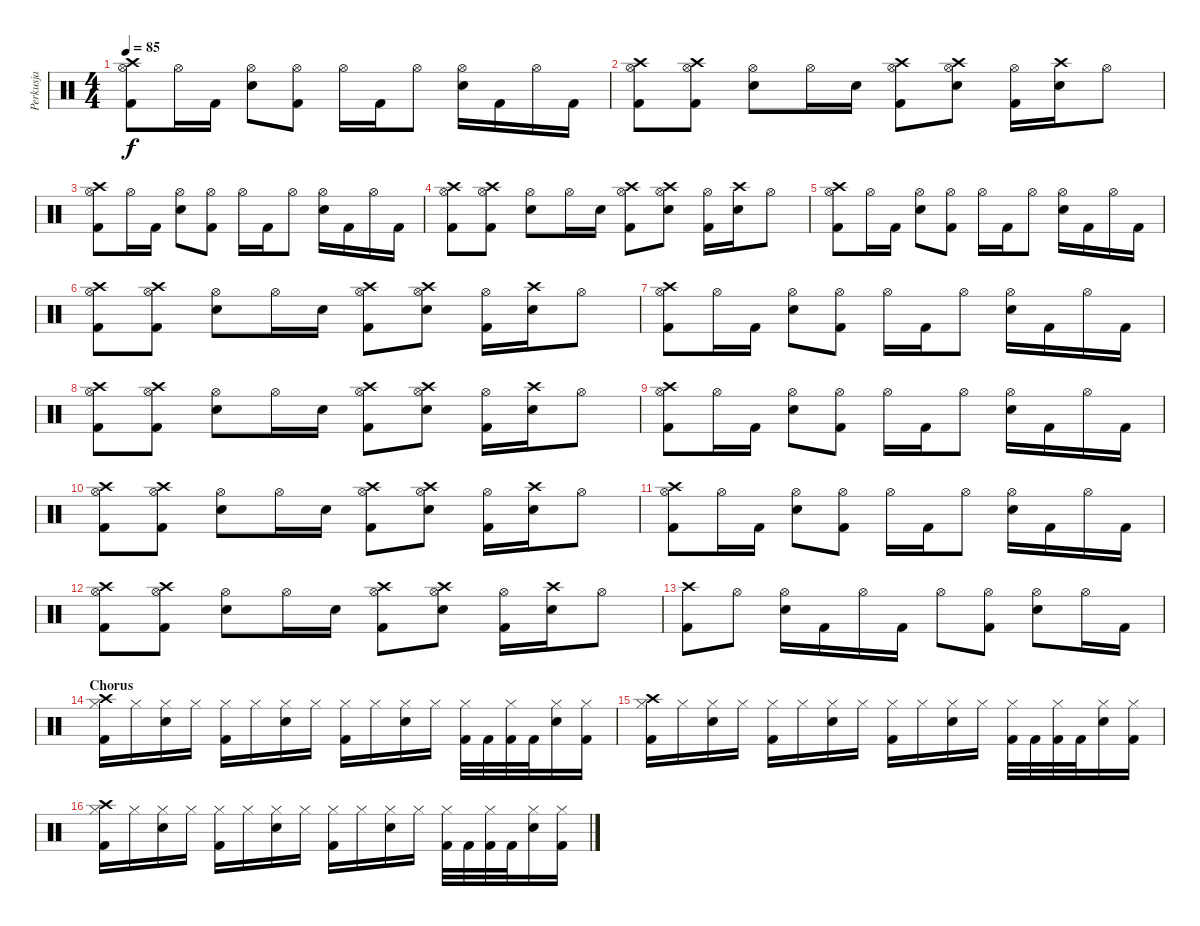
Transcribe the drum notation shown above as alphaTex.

\track ("Perkusja" "Perkusja") {instrument percussion}
\staff {score}
\articulation defaults
\ts (4 4)
\tempo 85
\clef neutral
\ks c
("Hi-Hat (open)" "Kick (hit) 2" "Crash high (hit)").8{dy f} "Hi-Hat (open)".16 "Kick (hit) 2".16 ("Hi-Hat (open)" "Snare (hit) 2").8 ("Hi-Hat (open)" "Kick (hit) 2").8 "Hi-Hat (open)".16 "Kick (hit) 2".16 "Hi-Hat (open)".8 ("Hi-Hat (open)" "Snare (hit) 2").16 "Kick (hit) 2".16 "Hi-Hat (open)".16 "Kick (hit) 2".16 |
("Hi-Hat (open)" "Kick (hit) 2" "Crash high (hit)").8 ("Hi-Hat (open)" "Kick (hit) 2" "Crash high (hit)").8 ("Hi-Hat (open)" "Snare (hit) 2").8 "Hi-Hat (open)".16 "Snare (hit) 2".16 ("Hi-Hat (open)" "Kick (hit) 2" "Crash high (hit)").8 ("Hi-Hat (open)" "Snare (hit) 2" "Crash high (hit)").8 ("Hi-Hat (open)" "Kick (hit) 2").16 ("Snare (hit) 2" "Crash high (hit)").16 "Hi-Hat (open)".8 |
("Hi-Hat (open)" "Kick (hit) 2" "Crash high (hit)").8 "Hi-Hat (open)".16 "Kick (hit) 2".16 ("Hi-Hat (open)" "Snare (hit) 2").8 ("Hi-Hat (open)" "Kick (hit) 2").8 "Hi-Hat (open)".16 "Kick (hit) 2".16 "Hi-Hat (open)".8 ("Hi-Hat (open)" "Snare (hit) 2").16 "Kick (hit) 2".16 "Hi-Hat (open)".16 "Kick (hit) 2".16 |
("Hi-Hat (open)" "Kick (hit) 2" "Crash high (hit)").8 ("Hi-Hat (open)" "Kick (hit) 2" "Crash high (hit)").8 ("Hi-Hat (open)" "Snare (hit) 2").8 "Hi-Hat (open)".16 "Snare (hit) 2".16 ("Hi-Hat (open)" "Kick (hit) 2" "Crash high (hit)").8 ("Hi-Hat (open)" "Snare (hit) 2" "Crash high (hit)").8 ("Hi-Hat (open)" "Kick (hit) 2").16 ("Snare (hit) 2" "Crash high (hit)").16 "Hi-Hat (open)".8 |
("Hi-Hat (open)" "Kick (hit) 2" "Crash high (hit)").8 "Hi-Hat (open)".16 "Kick (hit) 2".16 ("Hi-Hat (open)" "Snare (hit) 2").8 ("Hi-Hat (open)" "Kick (hit) 2").8 "Hi-Hat (open)".16 "Kick (hit) 2".16 "Hi-Hat (open)".8 ("Hi-Hat (open)" "Snare (hit) 2").16 "Kick (hit) 2".16 "Hi-Hat (open)".16 "Kick (hit) 2".16 |
("Hi-Hat (open)" "Kick (hit) 2" "Crash high (hit)").8 ("Hi-Hat (open)" "Kick (hit) 2" "Crash high (hit)").8 ("Hi-Hat (open)" "Snare (hit) 2").8 "Hi-Hat (open)".16 "Snare (hit) 2".16 ("Hi-Hat (open)" "Kick (hit) 2" "Crash high (hit)").8 ("Hi-Hat (open)" "Snare (hit) 2" "Crash high (hit)").8 ("Hi-Hat (open)" "Kick (hit) 2").16 ("Snare (hit) 2" "Crash high (hit)").16 "Hi-Hat (open)".8 |
("Hi-Hat (open)" "Kick (hit) 2" "Crash high (hit)").8 "Hi-Hat (open)".16 "Kick (hit) 2".16 ("Hi-Hat (open)" "Snare (hit) 2").8 ("Hi-Hat (open)" "Kick (hit) 2").8 "Hi-Hat (open)".16 "Kick (hit) 2".16 "Hi-Hat (open)".8 ("Hi-Hat (open)" "Snare (hit) 2").16 "Kick (hit) 2".16 "Hi-Hat (open)".16 "Kick (hit) 2".16 |
("Hi-Hat (open)" "Kick (hit) 2" "Crash high (hit)").8 ("Hi-Hat (open)" "Kick (hit) 2" "Crash high (hit)").8 ("Hi-Hat (open)" "Snare (hit) 2").8 "Hi-Hat (open)".16 "Snare (hit) 2".16 ("Hi-Hat (open)" "Kick (hit) 2" "Crash high (hit)").8 ("Hi-Hat (open)" "Snare (hit) 2" "Crash high (hit)").8 ("Hi-Hat (open)" "Kick (hit) 2").16 ("Snare (hit) 2" "Crash high (hit)").16 "Hi-Hat (open)".8 |
("Hi-Hat (open)" "Kick (hit) 2" "Crash high (hit)").8 "Hi-Hat (open)".16 "Kick (hit) 2".16 ("Hi-Hat (open)" "Snare (hit) 2").8 ("Hi-Hat (open)" "Kick (hit) 2").8 "Hi-Hat (open)".16 "Kick (hit) 2".16 "Hi-Hat (open)".8 ("Hi-Hat (open)" "Snare (hit) 2").16 "Kick (hit) 2".16 "Hi-Hat (open)".16 "Kick (hit) 2".16 |
("Hi-Hat (open)" "Kick (hit) 2" "Crash high (hit)").8 ("Hi-Hat (open)" "Kick (hit) 2" "Crash high (hit)").8 ("Hi-Hat (open)" "Snare (hit) 2").8 "Hi-Hat (open)".16 "Snare (hit) 2".16 ("Hi-Hat (open)" "Kick (hit) 2" "Crash high (hit)").8 ("Hi-Hat (open)" "Snare (hit) 2" "Crash high (hit)").8 ("Hi-Hat (open)" "Kick (hit) 2").16 ("Snare (hit) 2" "Crash high (hit)").16 "Hi-Hat (open)".8 |
("Hi-Hat (open)" "Kick (hit) 2" "Crash high (hit)").8 "Hi-Hat (open)".16 "Kick (hit) 2".16 ("Hi-Hat (open)" "Snare (hit) 2").8 ("Hi-Hat (open)" "Kick (hit) 2").8 "Hi-Hat (open)".16 "Kick (hit) 2".16 "Hi-Hat (open)".8 ("Hi-Hat (open)" "Snare (hit) 2").16 "Kick (hit) 2".16 "Hi-Hat (open)".16 "Kick (hit) 2".16 |
("Hi-Hat (open)" "Kick (hit) 2" "Crash high (hit)").8 ("Hi-Hat (open)" "Kick (hit) 2" "Crash high (hit)").8 ("Hi-Hat (open)" "Snare (hit) 2").8 "Hi-Hat (open)".16 "Snare (hit) 2".16 ("Hi-Hat (open)" "Kick (hit) 2" "Crash high (hit)").8 ("Hi-Hat (open)" "Snare (hit) 2" "Crash high (hit)").8 ("Hi-Hat (open)" "Kick (hit) 2").16 ("Snare (hit) 2" "Crash high (hit)").16 "Hi-Hat (open)".8 |
("Crash high (hit)" "Kick (hit) 2").8 "Hi-Hat (open)".8 ("Hi-Hat (open)" "Snare (hit) 2").16 "Kick (hit) 2".16 "Hi-Hat (open)".16 "Kick (hit) 2".16 "Hi-Hat (open)".8 ("Hi-Hat (open)" "Kick (hit) 2").8 ("Hi-Hat (open)" "Snare (hit) 2").8 "Hi-Hat (open)".16 "Kick (hit) 2".16 |
\section ("" "Chorus")
("Hi-Hat (closed)" "Kick (hit) 2" "Crash high (hit)").16 "Hi-Hat (closed)".16 ("Hi-Hat (closed)" "Snare (hit) 2").16 "Hi-Hat (closed)".16 ("Hi-Hat (closed)" "Kick (hit) 2").16 "Hi-Hat (closed)".16 ("Hi-Hat (closed)" "Snare (hit) 2").16 "Hi-Hat (closed)".16 ("Hi-Hat (closed)" "Kick (hit) 2").16 "Hi-Hat (closed)".16 ("Hi-Hat (closed)" "Snare (hit) 2").16 "Hi-Hat (closed)".16 ("Hi-Hat (closed)" "Kick (hit) 2").32 "Kick (hit) 2".32 ("Hi-Hat (closed)" "Kick (hit) 2").32 "Kick (hit) 2".32 ("Hi-Hat (closed)" "Snare (hit) 2").16 ("Hi-Hat (closed)" "Kick (hit) 2").16 |
("Hi-Hat (closed)" "Kick (hit) 2" "Crash high (hit)").16 "Hi-Hat (closed)".16 ("Hi-Hat (closed)" "Snare (hit) 2").16 "Hi-Hat (closed)".16 ("Hi-Hat (closed)" "Kick (hit) 2").16 "Hi-Hat (closed)".16 ("Hi-Hat (closed)" "Snare (hit) 2").16 "Hi-Hat (closed)".16 ("Hi-Hat (closed)" "Kick (hit) 2").16 "Hi-Hat (closed)".16 ("Hi-Hat (closed)" "Snare (hit) 2").16 "Hi-Hat (closed)".16 ("Hi-Hat (closed)" "Kick (hit) 2").32 "Kick (hit) 2".32 ("Hi-Hat (closed)" "Kick (hit) 2").32 "Kick (hit) 2".32 ("Hi-Hat (closed)" "Snare (hit) 2").16 ("Hi-Hat (closed)" "Kick (hit) 2").16 |
("Hi-Hat (closed)" "Kick (hit) 2" "Crash high (hit)").16 "Hi-Hat (closed)".16 ("Hi-Hat (closed)" "Snare (hit) 2").16 "Hi-Hat (closed)".16 ("Hi-Hat (closed)" "Kick (hit) 2").16 "Hi-Hat (closed)".16 ("Hi-Hat (closed)" "Snare (hit) 2").16 "Hi-Hat (closed)".16 ("Hi-Hat (closed)" "Kick (hit) 2").16 "Hi-Hat (closed)".16 ("Hi-Hat (closed)" "Snare (hit) 2").16 "Hi-Hat (closed)".16 ("Hi-Hat (closed)" "Kick (hit) 2").32 "Kick (hit) 2".32 ("Hi-Hat (closed)" "Kick (hit) 2").32 "Kick (hit) 2".32 ("Hi-Hat (closed)" "Snare (hit) 2").16 ("Hi-Hat (closed)" "Kick (hit) 2").16
